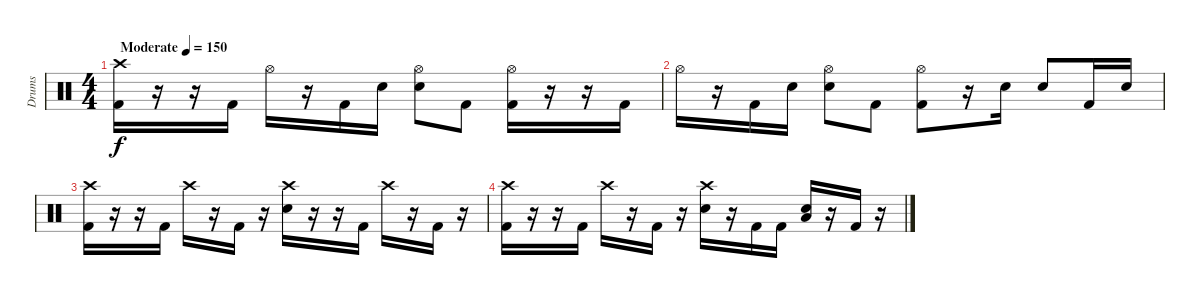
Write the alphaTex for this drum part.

\track ("Drums" "Drums") {instrument percussion}
\staff {score}
\articulation defaults
\ts (4 4)
\tempo (150 "Moderate")
\clef neutral
\ks c
("Crash high (hit)" "Kick (hit) 2").16{dy f} r.16 r.16 "Kick (hit) 2".16 "Hi-Hat (open)".16 r.16 "Kick (hit) 2".16 "Electric Snare (hit)".16 ("Hi-Hat (open)" "Electric Snare (hit)").8 "Kick (hit) 2".8 ("Hi-Hat (open)" "Kick (hit) 2").16 r.16 r.16 "Kick (hit) 2".16 |
"Hi-Hat (open)".16 r.16 "Kick (hit) 2".16 "Electric Snare (hit)".16 ("Hi-Hat (open)" "Electric Snare (hit)").8 "Kick (hit) 2".8 ("Hi-Hat (open)" "Kick (hit) 2").8 r.16 "Electric Snare (hit)".16 "Electric Snare (hit)".8 "Kick (hit) 2".16 "Electric Snare (hit)".16 |
("Crash high (hit)" "Kick (hit) 2").16 r.16 r.16 "Kick (hit) 2".16 "Crash high (hit)".16 r.16 "Kick (hit) 2".16 r.16 ("Crash high (hit)" "Electric Snare (hit)").16 r.16 r.16 "Kick (hit) 2".16 "Crash high (hit)".16 r.16 "Kick (hit) 2".16 r.16 |
("Crash high (hit)" "Kick (hit) 2").16 r.16 r.16 "Kick (hit) 2".16 "Crash high (hit)".16 r.16 "Kick (hit) 2".16 r.16 ("Crash high (hit)" "Electric Snare (hit)").16 r.16 "Kick (hit) 2".16 "Kick (hit) 2".16 ("Electric Snare (hit)" "Low Floor Tom (hit)").16 r.16 "Kick (hit) 2".16 r.16
